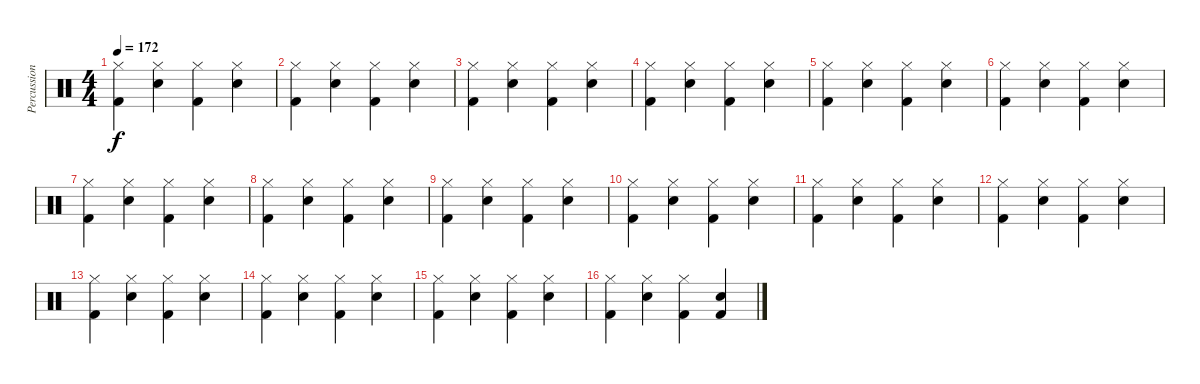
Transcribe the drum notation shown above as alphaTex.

\track ("Percussion" "Percussion") {instrument percussion}
\staff {score}
\articulation defaults
\ts (4 4)
\tempo 172
\clef neutral
\ks c
("Hi-Hat (closed)" "Kick (hit) 2").4{dy f} ("Hi-Hat (closed)" "Snare (hit) 2").4 ("Hi-Hat (closed)" "Kick (hit) 2").4 ("Hi-Hat (closed)" "Snare (hit) 2").4 |
("Hi-Hat (closed)" "Kick (hit) 2").4 ("Hi-Hat (closed)" "Snare (hit) 2").4 ("Hi-Hat (closed)" "Kick (hit) 2").4 ("Hi-Hat (closed)" "Snare (hit) 2").4 |
("Hi-Hat (closed)" "Kick (hit) 2").4 ("Hi-Hat (closed)" "Snare (hit) 2").4 ("Hi-Hat (closed)" "Kick (hit) 2").4 ("Hi-Hat (closed)" "Snare (hit) 2").4 |
("Hi-Hat (closed)" "Kick (hit) 2").4 ("Hi-Hat (closed)" "Snare (hit) 2").4 ("Hi-Hat (closed)" "Kick (hit) 2").4 ("Hi-Hat (closed)" "Snare (hit) 2").4 |
("Hi-Hat (closed)" "Kick (hit) 2").4 ("Hi-Hat (closed)" "Snare (hit) 2").4 ("Hi-Hat (closed)" "Kick (hit) 2").4 ("Hi-Hat (closed)" "Snare (hit) 2").4 |
("Hi-Hat (closed)" "Kick (hit) 2").4 ("Hi-Hat (closed)" "Snare (hit) 2").4 ("Hi-Hat (closed)" "Kick (hit) 2").4 ("Hi-Hat (closed)" "Snare (hit) 2").4 |
("Hi-Hat (closed)" "Kick (hit) 2").4 ("Hi-Hat (closed)" "Snare (hit) 2").4 ("Hi-Hat (closed)" "Kick (hit) 2").4 ("Hi-Hat (closed)" "Snare (hit) 2").4 |
("Hi-Hat (closed)" "Kick (hit) 2").4 ("Hi-Hat (closed)" "Snare (hit) 2").4 ("Hi-Hat (closed)" "Kick (hit) 2").4 ("Hi-Hat (closed)" "Snare (hit) 2").4 |
("Hi-Hat (closed)" "Kick (hit) 2").4 ("Hi-Hat (closed)" "Snare (hit) 2").4 ("Hi-Hat (closed)" "Kick (hit) 2").4 ("Hi-Hat (closed)" "Snare (hit) 2").4 |
("Hi-Hat (closed)" "Kick (hit) 2").4 ("Hi-Hat (closed)" "Snare (hit) 2").4 ("Hi-Hat (closed)" "Kick (hit) 2").4 ("Hi-Hat (closed)" "Snare (hit) 2").4 |
("Hi-Hat (closed)" "Kick (hit) 2").4 ("Hi-Hat (closed)" "Snare (hit) 2").4 ("Hi-Hat (closed)" "Kick (hit) 2").4 ("Hi-Hat (closed)" "Snare (hit) 2").4 |
("Hi-Hat (closed)" "Kick (hit) 2").4 ("Hi-Hat (closed)" "Snare (hit) 2").4 ("Hi-Hat (closed)" "Kick (hit) 2").4 ("Hi-Hat (closed)" "Snare (hit) 2").4 |
("Hi-Hat (closed)" "Kick (hit) 2").4 ("Hi-Hat (closed)" "Snare (hit) 2").4 ("Hi-Hat (closed)" "Kick (hit) 2").4 ("Hi-Hat (closed)" "Snare (hit) 2").4 |
("Hi-Hat (closed)" "Kick (hit) 2").4 ("Hi-Hat (closed)" "Snare (hit) 2").4 ("Hi-Hat (closed)" "Kick (hit) 2").4 ("Hi-Hat (closed)" "Snare (hit) 2").4 |
("Hi-Hat (closed)" "Kick (hit) 2").4 ("Hi-Hat (closed)" "Snare (hit) 2").4 ("Hi-Hat (closed)" "Kick (hit) 2").4 ("Hi-Hat (closed)" "Snare (hit) 2").4 |
("Hi-Hat (closed)" "Kick (hit) 2").4 ("Hi-Hat (closed)" "Snare (hit) 2").4 ("Hi-Hat (closed)" "Kick (hit) 2").4 ("Snare (hit) 2" "Kick (hit) 2").4
